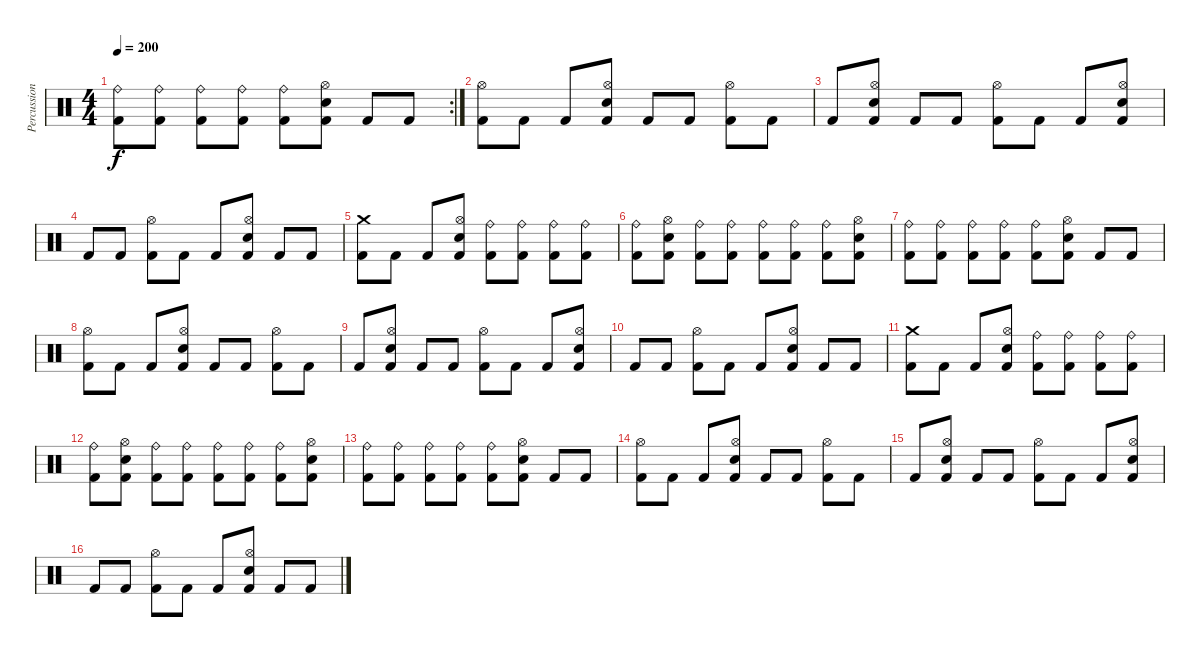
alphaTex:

\track ("Percussion" "Percussion") {instrument percussion}
\staff {score}
\articulation defaults
\rc 2
\ts (4 4)
\tempo 200
\clef neutral
\ks c
("Ride (bell)" "Kick (hit) 2").8{dy f} ("Ride (bell)" "Kick (hit) 2").8 ("Ride (bell)" "Kick (hit) 2").8 ("Ride (bell)" "Kick (hit) 2").8 ("Ride (bell)" "Kick (hit) 2").8 ("Hi-Hat (open)" "Electric Snare (hit)" "Kick (hit) 2").8 "Kick (hit) 2".8 "Kick (hit) 2".8 |
("Hi-Hat (open)" "Kick (hit) 2").8 "Kick (hit) 2".8 "Kick (hit) 2".8 ("Hi-Hat (open)" "Electric Snare (hit)" "Kick (hit) 2").8 "Kick (hit) 2".8 "Kick (hit) 2".8 ("Hi-Hat (open)" "Kick (hit) 2").8 "Kick (hit) 2".8 |
"Kick (hit) 2".8 ("Hi-Hat (open)" "Electric Snare (hit)" "Kick (hit) 2").8 "Kick (hit) 2".8 "Kick (hit) 2".8 ("Hi-Hat (open)" "Kick (hit) 2").8 "Kick (hit) 2".8 "Kick (hit) 2".8 ("Hi-Hat (open)" "Electric Snare (hit)" "Kick (hit) 2").8 |
"Kick (hit) 2".8 "Kick (hit) 2".8 ("Hi-Hat (open)" "Kick (hit) 2").8 "Kick (hit) 2".8 "Kick (hit) 2".8 ("Hi-Hat (open)" "Electric Snare (hit)" "Kick (hit) 2").8 "Kick (hit) 2".8 "Kick (hit) 2".8 |
("Crash medium (hit)" "Kick (hit) 2").8 "Kick (hit) 2".8 "Kick (hit) 2".8 ("Hi-Hat (open)" "Electric Snare (hit)" "Kick (hit) 2").8 ("Ride (bell)" "Kick (hit) 2").8 ("Ride (bell)" "Kick (hit) 2").8 ("Ride (bell)" "Kick (hit) 2").8 ("Ride (bell)" "Kick (hit) 2").8 |
("Ride (bell)" "Kick (hit) 2").8 ("Hi-Hat (open)" "Electric Snare (hit)" "Kick (hit) 2").8 ("Ride (bell)" "Kick (hit) 2").8 ("Ride (bell)" "Kick (hit) 2").8 ("Ride (bell)" "Kick (hit) 2").8 ("Ride (bell)" "Kick (hit) 2").8 ("Ride (bell)" "Kick (hit) 2").8 ("Hi-Hat (open)" "Electric Snare (hit)" "Kick (hit) 2").8 |
("Ride (bell)" "Kick (hit) 2").8 ("Ride (bell)" "Kick (hit) 2").8 ("Ride (bell)" "Kick (hit) 2").8 ("Ride (bell)" "Kick (hit) 2").8 ("Ride (bell)" "Kick (hit) 2").8 ("Hi-Hat (open)" "Electric Snare (hit)" "Kick (hit) 2").8 "Kick (hit) 2".8 "Kick (hit) 2".8 |
("Hi-Hat (open)" "Kick (hit) 2").8 "Kick (hit) 2".8 "Kick (hit) 2".8 ("Hi-Hat (open)" "Electric Snare (hit)" "Kick (hit) 2").8 "Kick (hit) 2".8 "Kick (hit) 2".8 ("Hi-Hat (open)" "Kick (hit) 2").8 "Kick (hit) 2".8 |
"Kick (hit) 2".8 ("Hi-Hat (open)" "Electric Snare (hit)" "Kick (hit) 2").8 "Kick (hit) 2".8 "Kick (hit) 2".8 ("Hi-Hat (open)" "Kick (hit) 2").8 "Kick (hit) 2".8 "Kick (hit) 2".8 ("Hi-Hat (open)" "Electric Snare (hit)" "Kick (hit) 2").8 |
"Kick (hit) 2".8 "Kick (hit) 2".8 ("Hi-Hat (open)" "Kick (hit) 2").8 "Kick (hit) 2".8 "Kick (hit) 2".8 ("Hi-Hat (open)" "Electric Snare (hit)" "Kick (hit) 2").8 "Kick (hit) 2".8 "Kick (hit) 2".8 |
("Crash medium (hit)" "Kick (hit) 2").8 "Kick (hit) 2".8 "Kick (hit) 2".8 ("Hi-Hat (open)" "Electric Snare (hit)" "Kick (hit) 2").8 ("Ride (bell)" "Kick (hit) 2").8 ("Ride (bell)" "Kick (hit) 2").8 ("Ride (bell)" "Kick (hit) 2").8 ("Ride (bell)" "Kick (hit) 2").8 |
("Ride (bell)" "Kick (hit) 2").8 ("Hi-Hat (open)" "Electric Snare (hit)" "Kick (hit) 2").8 ("Ride (bell)" "Kick (hit) 2").8 ("Ride (bell)" "Kick (hit) 2").8 ("Ride (bell)" "Kick (hit) 2").8 ("Ride (bell)" "Kick (hit) 2").8 ("Ride (bell)" "Kick (hit) 2").8 ("Hi-Hat (open)" "Electric Snare (hit)" "Kick (hit) 2").8 |
("Ride (bell)" "Kick (hit) 2").8 ("Ride (bell)" "Kick (hit) 2").8 ("Ride (bell)" "Kick (hit) 2").8 ("Ride (bell)" "Kick (hit) 2").8 ("Ride (bell)" "Kick (hit) 2").8 ("Hi-Hat (open)" "Electric Snare (hit)" "Kick (hit) 2").8 "Kick (hit) 2".8 "Kick (hit) 2".8 |
("Hi-Hat (open)" "Kick (hit) 2").8 "Kick (hit) 2".8 "Kick (hit) 2".8 ("Hi-Hat (open)" "Electric Snare (hit)" "Kick (hit) 2").8 "Kick (hit) 2".8 "Kick (hit) 2".8 ("Hi-Hat (open)" "Kick (hit) 2").8 "Kick (hit) 2".8 |
"Kick (hit) 2".8 ("Hi-Hat (open)" "Electric Snare (hit)" "Kick (hit) 2").8 "Kick (hit) 2".8 "Kick (hit) 2".8 ("Hi-Hat (open)" "Kick (hit) 2").8 "Kick (hit) 2".8 "Kick (hit) 2".8 ("Hi-Hat (open)" "Electric Snare (hit)" "Kick (hit) 2").8 |
"Kick (hit) 2".8 "Kick (hit) 2".8 ("Hi-Hat (open)" "Kick (hit) 2").8 "Kick (hit) 2".8 "Kick (hit) 2".8 ("Hi-Hat (open)" "Electric Snare (hit)" "Kick (hit) 2").8 "Kick (hit) 2".8 "Kick (hit) 2".8
